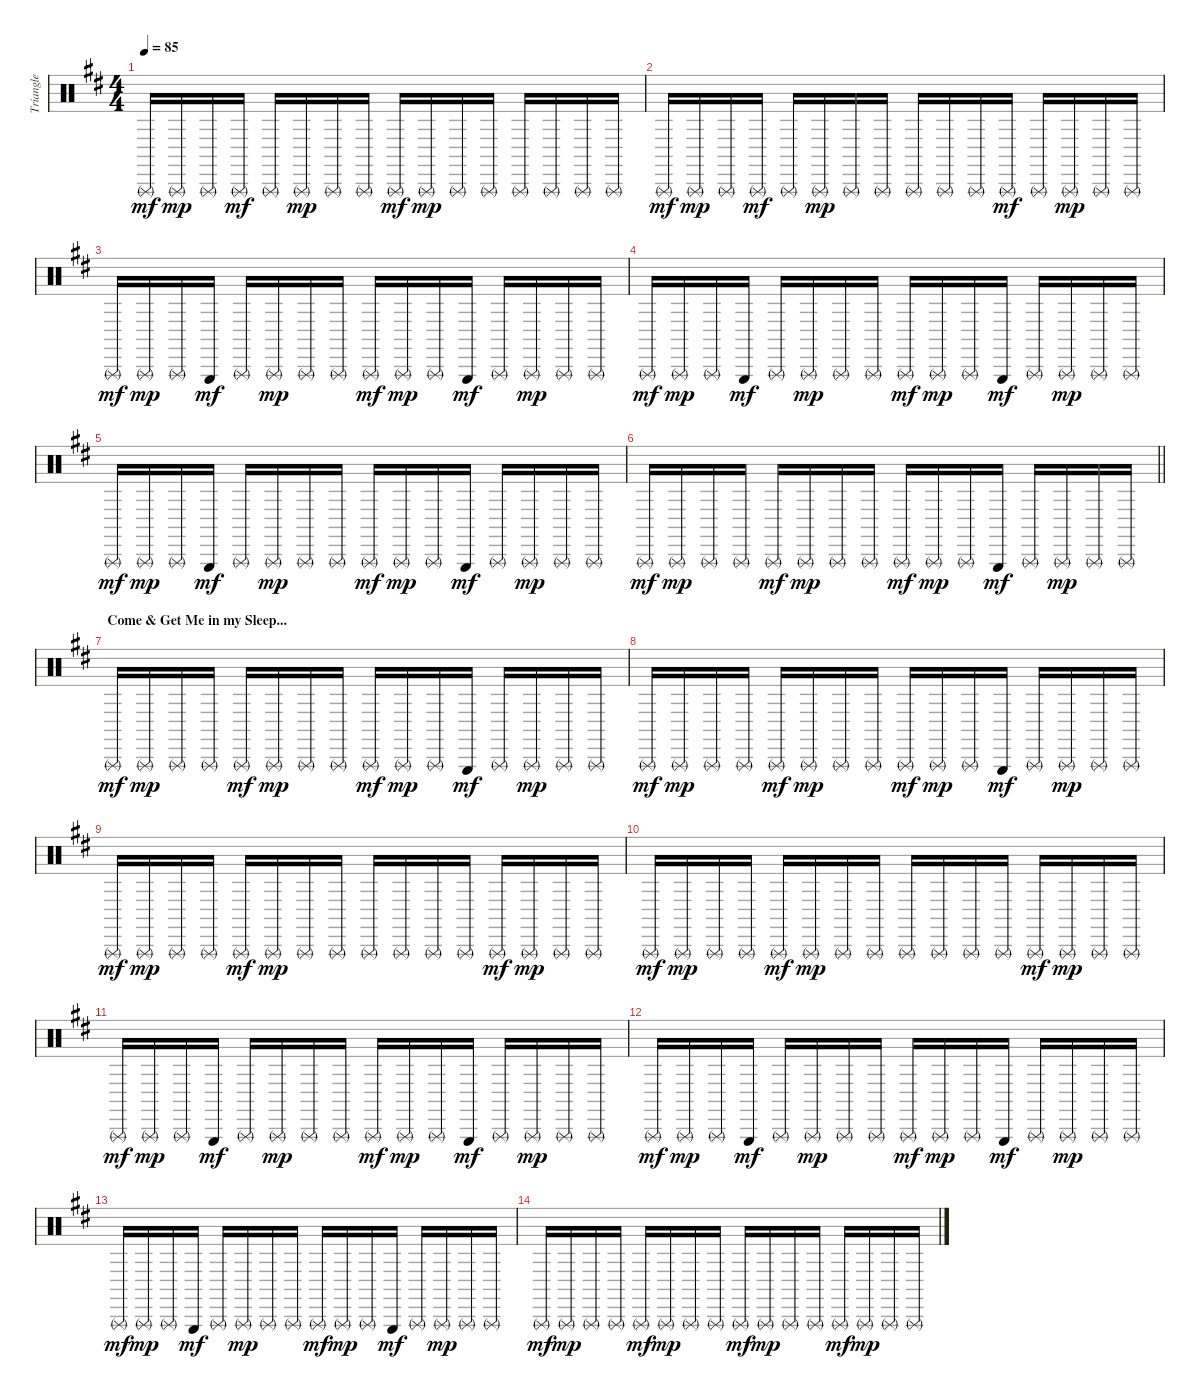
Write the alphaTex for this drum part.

\track ("Triangle" "Triangle") {instrument percussion}
\staff {score}
\articulation defaults
\ts (4 4)
\tempo 85
\clef neutral
\ks bminor "Triangle (rnute)".16{dy mf} "Triangle (rnute)".16{dy mp} "Triangle (rnute)".16 "Triangle (rnute)".16{dy mf} "Triangle (rnute)".16 "Triangle (rnute)".16{dy mp} "Triangle (rnute)".16 "Triangle (rnute)".16 "Triangle (rnute)".16{dy mf} "Triangle (rnute)".16{dy mp} "Triangle (rnute)".16 "Triangle (rnute)".16 "Triangle (rnute)".16 "Triangle (rnute)".16 "Triangle (rnute)".16 "Triangle (rnute)".16
|
"Triangle (rnute)".16{dy mf} "Triangle (rnute)".16{dy mp} "Triangle (rnute)".16 "Triangle (rnute)".16{dy mf} "Triangle (rnute)".16 "Triangle (rnute)".16{dy mp} "Triangle (rnute)".16 "Triangle (rnute)".16 "Triangle (rnute)".16 "Triangle (rnute)".16 "Triangle (rnute)".16 "Triangle (rnute)".16{dy mf} "Triangle (rnute)".16 "Triangle (rnute)".16{dy mp} "Triangle (rnute)".16 "Triangle (rnute)".16 |
"Triangle (rnute)".16{dy mf} "Triangle (rnute)".16{dy mp} "Triangle (rnute)".16 "Triangle (hit)".16{dy mf} "Triangle (rnute)".16 "Triangle (rnute)".16{dy mp} "Triangle (rnute)".16 "Triangle (rnute)".16 "Triangle (rnute)".16{dy mf} "Triangle (rnute)".16{dy mp} "Triangle (rnute)".16 "Triangle (hit)".16{dy mf} "Triangle (rnute)".16 "Triangle (rnute)".16{dy mp} "Triangle (rnute)".16 "Triangle (rnute)".16 |
"Triangle (rnute)".16{dy mf} "Triangle (rnute)".16{dy mp} "Triangle (rnute)".16 "Triangle (hit)".16{dy mf} "Triangle (rnute)".16 "Triangle (rnute)".16{dy mp} "Triangle (rnute)".16 "Triangle (rnute)".16 "Triangle (rnute)".16{dy mf} "Triangle (rnute)".16{dy mp} "Triangle (rnute)".16 "Triangle (hit)".16{dy mf} "Triangle (rnute)".16 "Triangle (rnute)".16{dy mp} "Triangle (rnute)".16 "Triangle (rnute)".16 |
"Triangle (rnute)".16{dy mf} "Triangle (rnute)".16{dy mp} "Triangle (rnute)".16 "Triangle (hit)".16{dy mf} "Triangle (rnute)".16 "Triangle (rnute)".16{dy mp} "Triangle (rnute)".16 "Triangle (rnute)".16 "Triangle (rnute)".16{dy mf} "Triangle (rnute)".16{dy mp} "Triangle (rnute)".16 "Triangle (hit)".16{dy mf} "Triangle (rnute)".16 "Triangle (rnute)".16{dy mp} "Triangle (rnute)".16 "Triangle (rnute)".16 |
\barLineRight lightlight "Triangle (rnute)".16{dy mf} "Triangle (rnute)".16{dy mp} "Triangle (rnute)".16 "Triangle (rnute)".16 "Triangle (rnute)".16{dy mf} "Triangle (rnute)".16{dy mp} "Triangle (rnute)".16 "Triangle (rnute)".16 "Triangle (rnute)".16{dy mf} "Triangle (rnute)".16{dy mp} "Triangle (rnute)".16 "Triangle (hit)".16{dy mf} "Triangle (rnute)".16 "Triangle (rnute)".16{dy mp} "Triangle (rnute)".16 "Triangle (rnute)".16
|
\section ("" "Come & Get Me in my Sleep...")
"Triangle (rnute)".16{dy mf} "Triangle (rnute)".16{dy mp} "Triangle (rnute)".16 "Triangle (rnute)".16 "Triangle (rnute)".16{dy mf} "Triangle (rnute)".16{dy mp} "Triangle (rnute)".16 "Triangle (rnute)".16 "Triangle (rnute)".16{dy mf} "Triangle (rnute)".16{dy mp} "Triangle (rnute)".16 "Triangle (hit)".16{dy mf} "Triangle (rnute)".16 "Triangle (rnute)".16{dy mp} "Triangle (rnute)".16 "Triangle (rnute)".16 |
"Triangle (rnute)".16{dy mf} "Triangle (rnute)".16{dy mp} "Triangle (rnute)".16 "Triangle (rnute)".16 "Triangle (rnute)".16{dy mf} "Triangle (rnute)".16{dy mp} "Triangle (rnute)".16 "Triangle (rnute)".16 "Triangle (rnute)".16{dy mf} "Triangle (rnute)".16{dy mp} "Triangle (rnute)".16 "Triangle (hit)".16{dy mf} "Triangle (rnute)".16 "Triangle (rnute)".16{dy mp} "Triangle (rnute)".16 "Triangle (rnute)".16 |
"Triangle (rnute)".16{dy mf} "Triangle (rnute)".16{dy mp} "Triangle (rnute)".16 "Triangle (rnute)".16 "Triangle (rnute)".16{dy mf} "Triangle (rnute)".16{dy mp} "Triangle (rnute)".16 "Triangle (rnute)".16 "Triangle (rnute)".16 "Triangle (rnute)".16 "Triangle (rnute)".16 "Triangle (rnute)".16 "Triangle (rnute)".16{dy mf} "Triangle (rnute)".16{dy mp} "Triangle (rnute)".16 "Triangle (rnute)".16 |
"Triangle (rnute)".16{dy mf} "Triangle (rnute)".16{dy mp} "Triangle (rnute)".16 "Triangle (rnute)".16 "Triangle (rnute)".16{dy mf} "Triangle (rnute)".16{dy mp} "Triangle (rnute)".16 "Triangle (rnute)".16 "Triangle (rnute)".16 "Triangle (rnute)".16 "Triangle (rnute)".16 "Triangle (rnute)".16 "Triangle (rnute)".16{dy mf} "Triangle (rnute)".16{dy mp} "Triangle (rnute)".16 "Triangle (rnute)".16 |
"Triangle (rnute)".16{dy mf} "Triangle (rnute)".16{dy mp} "Triangle (rnute)".16 "Triangle (hit)".16{dy mf} "Triangle (rnute)".16 "Triangle (rnute)".16{dy mp} "Triangle (rnute)".16 "Triangle (rnute)".16 "Triangle (rnute)".16{dy mf} "Triangle (rnute)".16{dy mp} "Triangle (rnute)".16 "Triangle (hit)".16{dy mf} "Triangle (rnute)".16 "Triangle (rnute)".16{dy mp} "Triangle (rnute)".16 "Triangle (rnute)".16 |
"Triangle (rnute)".16{dy mf} "Triangle (rnute)".16{dy mp} "Triangle (rnute)".16 "Triangle (hit)".16{dy mf} "Triangle (rnute)".16 "Triangle (rnute)".16{dy mp} "Triangle (rnute)".16 "Triangle (rnute)".16 "Triangle (rnute)".16{dy mf} "Triangle (rnute)".16{dy mp} "Triangle (rnute)".16 "Triangle (hit)".16{dy mf} "Triangle (rnute)".16 "Triangle (rnute)".16{dy mp} "Triangle (rnute)".16 "Triangle (rnute)".16 |
"Triangle (rnute)".16{dy mf} "Triangle (rnute)".16{dy mp} "Triangle (rnute)".16 "Triangle (hit)".16{dy mf} "Triangle (rnute)".16 "Triangle (rnute)".16{dy mp} "Triangle (rnute)".16 "Triangle (rnute)".16 "Triangle (rnute)".16{dy mf} "Triangle (rnute)".16{dy mp} "Triangle (rnute)".16 "Triangle (hit)".16{dy mf} "Triangle (rnute)".16 "Triangle (rnute)".16{dy mp} "Triangle (rnute)".16 "Triangle (rnute)".16 |
"Triangle (rnute)".16{dy mf} "Triangle (rnute)".16{dy mp} "Triangle (rnute)".16 "Triangle (rnute)".16 "Triangle (rnute)".16{dy mf} "Triangle (rnute)".16{dy mp} "Triangle (rnute)".16 "Triangle (rnute)".16 "Triangle (rnute)".16{dy mf} "Triangle (rnute)".16{dy mp} "Triangle (rnute)".16 "Triangle (rnute)".16 "Triangle (rnute)".16{dy mf} "Triangle (rnute)".16{dy mp} "Triangle (rnute)".16 "Triangle (rnute)".16
